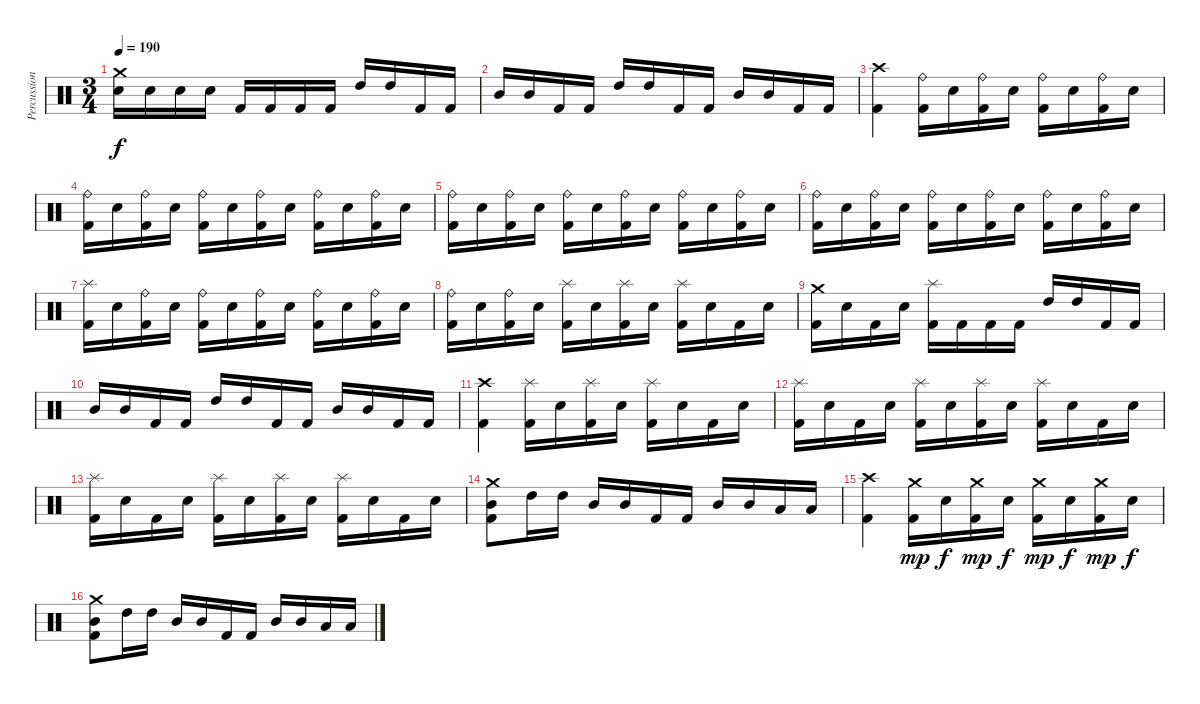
\track ("Percussion" "Percussion") {instrument percussion}
\staff {score}
\articulation defaults
\ts (3 4)
\tempo 190
\clef neutral
\ks c
("Crash medium (hit)" "Electric Snare (hit)").16{dy f} "Electric Snare (hit)".16 "Electric Snare (hit)".16 "Electric Snare (hit)".16 "Kick (hit) 2".16 "Kick (hit) 2".16 "Kick (hit) 2".16 "Kick (hit) 2".16 "High Tom (hit)".16 "High Tom (hit)".16 "Kick (hit) 2".16 "Kick (hit) 2".16 |
"Mid Tom (hit)".16 "Mid Tom (hit)".16 "Kick (hit) 2".16 "Kick (hit) 2".16 "High Tom (hit)".16 "High Tom (hit)".16 "Kick (hit) 2".16 "Kick (hit) 2".16 "Mid Tom (hit)".16 "Mid Tom (hit)".16 "Kick (hit) 2".16 "Kick (hit) 2".16 |
("Crash high (hit)" "Kick (hit) 2").4 ("Ride (bell)" "Kick (hit) 2").16 "Electric Snare (hit)".16 ("Ride (bell)" "Kick (hit) 2").16 "Electric Snare (hit)".16 ("Ride (bell)" "Kick (hit) 2").16 "Electric Snare (hit)".16 ("Ride (bell)" "Kick (hit) 2").16 "Electric Snare (hit)".16 |
("Ride (bell)" "Kick (hit) 2").16 "Electric Snare (hit)".16 ("Ride (bell)" "Kick (hit) 2").16 "Electric Snare (hit)".16 ("Ride (bell)" "Kick (hit) 2").16 "Electric Snare (hit)".16 ("Ride (bell)" "Kick (hit) 2").16 "Electric Snare (hit)".16 ("Ride (bell)" "Kick (hit) 2").16 "Electric Snare (hit)".16 ("Ride (bell)" "Kick (hit) 2").16 "Electric Snare (hit)".16 |
("Ride (bell)" "Kick (hit) 2").16 "Electric Snare (hit)".16 ("Ride (bell)" "Kick (hit) 2").16 "Electric Snare (hit)".16 ("Ride (bell)" "Kick (hit) 2").16 "Electric Snare (hit)".16 ("Ride (bell)" "Kick (hit) 2").16 "Electric Snare (hit)".16 ("Ride (bell)" "Kick (hit) 2").16 "Electric Snare (hit)".16 ("Ride (bell)" "Kick (hit) 2").16 "Electric Snare (hit)".16 |
("Ride (bell)" "Kick (hit) 2").16 "Electric Snare (hit)".16 ("Ride (bell)" "Kick (hit) 2").16 "Electric Snare (hit)".16 ("Ride (bell)" "Kick (hit) 2").16 "Electric Snare (hit)".16 ("Ride (bell)" "Kick (hit) 2").16 "Electric Snare (hit)".16 ("Ride (bell)" "Kick (hit) 2").16 "Electric Snare (hit)".16 ("Ride (bell)" "Kick (hit) 2").16 "Electric Snare (hit)".16 |
("Splash (hit)" "Kick (hit) 2").16 "Electric Snare (hit)".16 ("Ride (bell)" "Kick (hit) 2").16 "Electric Snare (hit)".16 ("Ride (bell)" "Kick (hit) 2").16 "Electric Snare (hit)".16 ("Ride (bell)" "Kick (hit) 2").16 "Electric Snare (hit)".16 ("Ride (bell)" "Kick (hit) 2").16 "Electric Snare (hit)".16 ("Ride (bell)" "Kick (hit) 2").16 "Electric Snare (hit)".16 |
("Ride (bell)" "Kick (hit) 2").16 "Electric Snare (hit)".16 ("Ride (bell)" "Kick (hit) 2").16 "Electric Snare (hit)".16 ("Splash (hit)" "Kick (hit) 2").16 "Electric Snare (hit)".16 ("Splash (hit)" "Kick (hit) 2").16 "Electric Snare (hit)".16 ("Splash (hit)" "Kick (hit) 2").16 "Electric Snare (hit)".16 "Kick (hit) 2".16 "Electric Snare (hit)".16 |
("Crash medium (hit)" "Kick (hit) 2").16 "Electric Snare (hit)".16 "Kick (hit) 2".16 "Electric Snare (hit)".16 ("Splash (hit)" "Kick (hit) 2").16 "Kick (hit) 2".16 "Kick (hit) 2".16 "Kick (hit) 2".16 "High Tom (hit)".16 "High Tom (hit)".16 "Kick (hit) 2".16 "Kick (hit) 2".16 |
"Mid Tom (hit)".16 "Mid Tom (hit)".16 "Kick (hit) 2".16 "Kick (hit) 2".16 "High Tom (hit)".16 "High Tom (hit)".16 "Kick (hit) 2".16 "Kick (hit) 2".16 "Mid Tom (hit)".16 "Mid Tom (hit)".16 "Kick (hit) 2".16 "Kick (hit) 2".16 |
("Crash high (hit)" "Kick (hit) 2").4 ("Splash (hit)" "Kick (hit) 2").16 "Electric Snare (hit)".16 ("Splash (hit)" "Kick (hit) 2").16 "Electric Snare (hit)".16 ("Splash (hit)" "Kick (hit) 2").16 "Electric Snare (hit)".16 "Kick (hit) 2".16 "Electric Snare (hit)".16 |
("Splash (hit)" "Kick (hit) 2").16 "Electric Snare (hit)".16 "Kick (hit) 2".16 "Electric Snare (hit)".16 ("Splash (hit)" "Kick (hit) 2").16 "Electric Snare (hit)".16 ("Splash (hit)" "Kick (hit) 2").16 "Electric Snare (hit)".16 ("Splash (hit)" "Kick (hit) 2").16 "Electric Snare (hit)".16 "Kick (hit) 2".16 "Electric Snare (hit)".16 |
("Splash (hit)" "Kick (hit) 2").16 "Electric Snare (hit)".16 "Kick (hit) 2".16 "Electric Snare (hit)".16 ("Splash (hit)" "Kick (hit) 2").16 "Electric Snare (hit)".16 ("Splash (hit)" "Kick (hit) 2").16 "Electric Snare (hit)".16 ("Splash (hit)" "Kick (hit) 2").16 "Electric Snare (hit)".16 "Kick (hit) 2".16 "Electric Snare (hit)".16 |
("Crash medium (hit)" "Mid Tom (hit)" "Kick (hit) 2").8 "High Tom (hit)".16 "High Tom (hit)".16 "Mid Tom (hit)".16 "Mid Tom (hit)".16 "Kick (hit) 2".16 "Kick (hit) 2".16 "Mid Tom (hit)".16 "Mid Tom (hit)".16 "Low Tom (hit)".16 "Low Tom (hit)".16 |
("Crash high (hit)" "Kick (hit) 2").4 ("Crash medium (hit)" "Kick (hit) 2").16{dy mp} "Electric Snare (hit)".16{dy f} ("Crash medium (hit)" "Kick (hit) 2").16{dy mp} "Electric Snare (hit)".16{dy f} ("Crash medium (hit)" "Kick (hit) 2").16{dy mp} "Electric Snare (hit)".16{dy f} ("Crash medium (hit)" "Kick (hit) 2").16{dy mp} "Electric Snare (hit)".16{dy f} |
("Crash medium (hit)" "Mid Tom (hit)" "Kick (hit) 2").8 "High Tom (hit)".16 "High Tom (hit)".16 "Mid Tom (hit)".16 "Mid Tom (hit)".16 "Kick (hit) 2".16 "Kick (hit) 2".16 "Mid Tom (hit)".16 "Mid Tom (hit)".16 "Low Tom (hit)".16 "Low Tom (hit)".16
